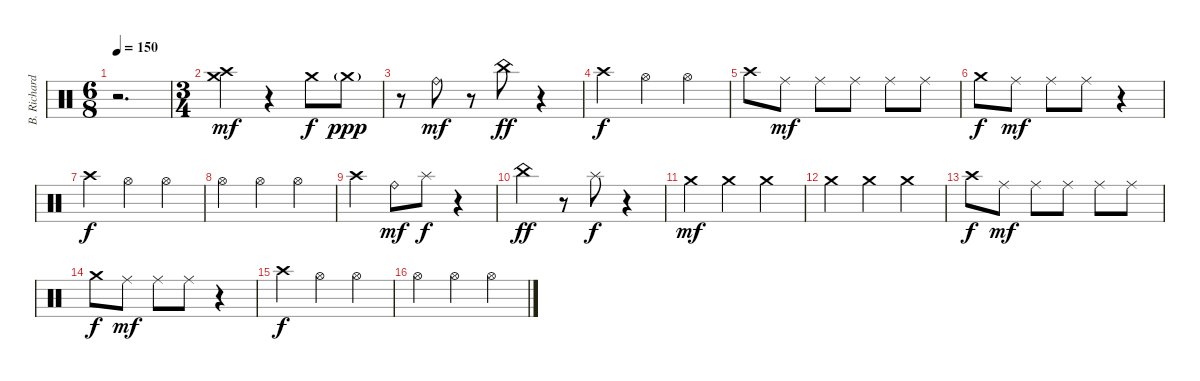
\track ("B. Richardson Drums" "B. Richard") {instrument percussion}
\staff {score}
\articulation defaults
\ts (6 8)
\tempo 150
\clef neutral
\ks c
r.2{d dy mp} |
\ts (3 4)
("Crash high (hit)" "Crash medium (hit)").4{dy mf} r.4 "Crash medium (hit)".8{dy f} "Crash medium (hit)"{g}.8{dy ppp} |
r.8 "Ride (bell)".8{dy mf} r.8 "China (hit)".8{dy ff} r.4 |
"Crash high (hit)".4{dy f} "Hi-Hat (open)".4 "Hi-Hat (open)".4 |
"Crash high (hit)".8 "Ride (middle)".8{dy mf} "Ride (middle)".8 "Ride (middle)".8 "Ride (middle)".8 "Ride (middle)".8 |
"Crash medium (hit)".8{dy f} "Ride (middle)".8{dy mf} "Ride (middle)".8 "Ride (middle)".8 r.4 |
"Crash high (hit)".4{dy f} "Hi-Hat (open)".4 "Hi-Hat (open)".4 |
"Hi-Hat (open)".4 "Hi-Hat (open)".4 "Hi-Hat (open)".4 |
"Crash high (hit)".4 "Ride (bell)".8{dy mf} "Splash (hit)".8{dy f} r.4 |
"China (hit)".4{dy ff} r.8 "Splash (hit)".8{dy f} r.4 |
"Crash medium (hit)".4{dy mf} "Crash medium (hit)".4 "Crash medium (hit)".4 |
"Crash medium (hit)".4 "Crash medium (hit)".4 "Crash medium (hit)".4 |
"Crash high (hit)".8{dy f} "Ride (middle)".8{dy mf} "Ride (middle)".8 "Ride (middle)".8 "Ride (middle)".8 "Ride (middle)".8 |
"Crash medium (hit)".8{dy f} "Ride (middle)".8{dy mf} "Ride (middle)".8 "Ride (middle)".8 r.4 |
"Crash high (hit)".4{dy f} "Hi-Hat (open)".4 "Hi-Hat (open)".4 |
"Hi-Hat (open)".4 "Hi-Hat (open)".4 "Hi-Hat (open)".4
